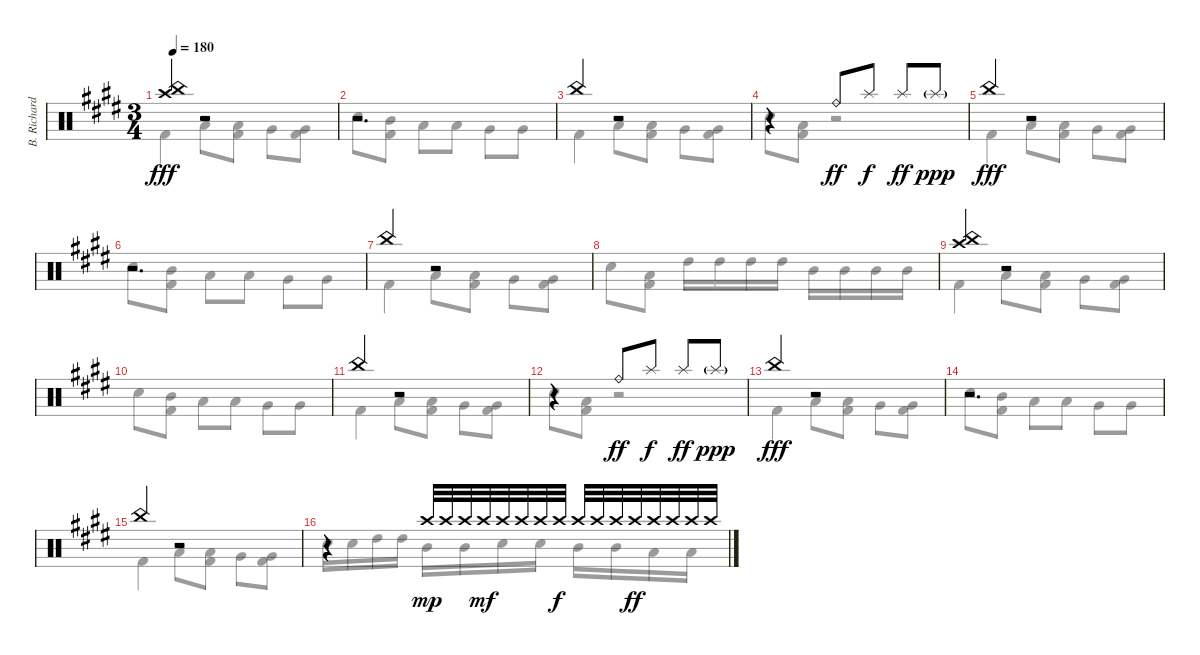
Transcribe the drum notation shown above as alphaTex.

\track ("B. Richardson Drums" "B. Richard") {instrument percussion}
\staff {score}
\articulation defaults
\voice
\ts (3 4)
\tempo 180
\clef neutral
\ks c#minor
("Crash high (hit)" "China (hit)").4{dy fff} r.2 |
r.2{d} |
"China (hit)".4 r.2 |
r.4 "Ride (bell)".8{dy ff} "Splash (hit)".8{dy f} "Splash (hit)".8{dy ff} "Splash (hit)"{g}.8{dy ppp} |
"China (hit)".4{dy fff} r.2 |
r.2{d} |
"China (hit)".4 r.2 |
|
("Crash high (hit)" "China (hit)").4 r.2 |
|
"China (hit)".4 r.2 |
r.4 "Ride (bell)".8{dy ff} "Splash (hit)".8{dy f} "Splash (hit)".8{dy ff} "Splash (hit)"{g}.8{dy ppp} |
"China (hit)".4{dy fff} r.2 |
r.2{d} |
"China (hit)".4 r.2 |
r.4 "Crash high (hit)".32{dy mp} "Crash high (hit)".32 "Crash high (hit)".32 "Crash high (hit)".32{dy mf} "Crash high (hit)".32 "Crash high (hit)".32 "Crash high (hit)".32 "Crash high (hit)".32{dy f} "Crash high (hit)".32 "Crash high (hit)".32 "Crash high (hit)".32 "Crash high (hit)".32{dy ff} "Crash high (hit)".32 "Crash high (hit)".32 "Crash high (hit)".32 "Crash high (hit)".32
\voice
\clef neutral
\ottava regular
\simile none
\ks c#minor "Kick (hit) 2".4{dy fff} "Low Tom (hit)".8
("Low Tom (hit)" "Kick (hit) 2").8 "Very Low Tom (hit)".8 ("Very Low Tom (hit)" "Kick (hit) 2").8 |
"Electric Snare (hit)".8 ("Mid Tom (hit)" "Kick (hit) 2").8 "Low Tom (hit)".8 "Low Tom (hit)".8 "Very Low Tom (hit)".8 "Very Low Tom (hit)".8 |
"Kick (hit) 2".4 "Low Tom (hit)".8 ("Low Tom (hit)" "Kick (hit) 2").8 "Very Low Tom (hit)".8 ("Very Low Tom (hit)" "Kick (hit) 2").8 |
"Electric Snare (hit)".8 ("Low Tom (hit)" "Kick (hit) 2").8 r.2 |
"Kick (hit) 2".4 "Low Tom (hit)".8 ("Low Tom (hit)" "Kick (hit) 2").8 "Very Low Tom (hit)".8 ("Very Low Tom (hit)" "Kick (hit) 2").8 |
"Electric Snare (hit)".8 ("Mid Tom (hit)" "Kick (hit) 2").8 "Low Tom (hit)".8 "Low Tom (hit)".8 "Very Low Tom (hit)".8 "Very Low Tom (hit)".8 |
"Kick (hit) 2".4 "Low Tom (hit)".8 ("Low Tom (hit)" "Kick (hit) 2").8 "Very Low Tom (hit)".8 ("Very Low Tom (hit)" "Kick (hit) 2").8 |
"Electric Snare (hit)".8 ("Low Tom (hit)" "Kick (hit) 2").8 "High Tom (hit)".16 "High Tom (hit)".16 "High Tom (hit)".16 "High Tom (hit)".16 "Mid Tom (hit)".16 "Mid Tom (hit)".16 "Mid Tom (hit)".16 "Mid Tom (hit)".16 |
"Kick (hit) 2".4 "Low Tom (hit)".8 ("Low Tom (hit)" "Kick (hit) 2").8 "Very Low Tom (hit)".8 ("Very Low Tom (hit)" "Kick (hit) 2").8 |
"Electric Snare (hit)".8 ("Mid Tom (hit)" "Kick (hit) 2").8 "Low Tom (hit)".8 "Low Tom (hit)".8 "Very Low Tom (hit)".8 "Very Low Tom (hit)".8 |
"Kick (hit) 2".4 "Low Tom (hit)".8 ("Low Tom (hit)" "Kick (hit) 2").8 "Very Low Tom (hit)".8 ("Very Low Tom (hit)" "Kick (hit) 2").8 |
"Electric Snare (hit)".8 ("Low Tom (hit)" "Kick (hit) 2").8 r.2 |
"Kick (hit) 2".4 "Low Tom (hit)".8 ("Low Tom (hit)" "Kick (hit) 2").8 "Very Low Tom (hit)".8 ("Very Low Tom (hit)" "Kick (hit) 2").8 |
"Electric Snare (hit)".8 ("Mid Tom (hit)" "Kick (hit) 2").8 "Low Tom (hit)".8 "Low Tom (hit)".8 "Very Low Tom (hit)".8 "Very Low Tom (hit)".8 |
"Kick (hit) 2".4 "Low Tom (hit)".8 ("Low Tom (hit)" "Kick (hit) 2").8 "Very Low Tom (hit)".8 ("Very Low Tom (hit)" "Kick (hit) 2").8 |
"Electric Snare (hit)".16 "Electric Snare (hit)".16 "High Tom (hit)".16 "High Tom (hit)".16 "Mid Tom (hit)".16 "Mid Tom (hit)".16 "Electric Snare (hit)".16 "Electric Snare (hit)".16 "Mid Tom (hit)".16 "Mid Tom (hit)".16 "Low Tom (hit)".16 "Low Tom (hit)".16
